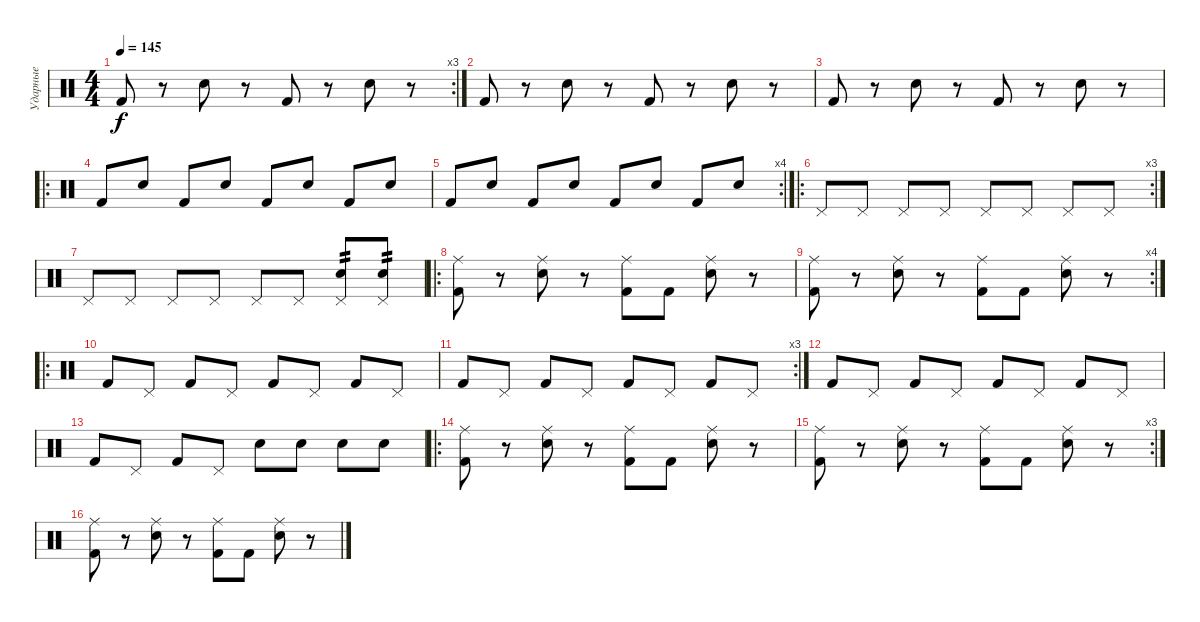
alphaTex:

\track ("Ударные" "Ударные") {instrument percussion}
\staff {score}
\articulation defaults
\rc 3
\ts (4 4)
\tempo 145
\clef neutral
\ks c "Kick (hit) 2".8{dy f}
r.8 "Electric Snare (hit)".8 r.8 "Kick (hit) 2".8 r.8 "Electric Snare (hit)".8 r.8 |
"Kick (hit) 2".8 r.8 "Electric Snare (hit)".8 r.8 "Kick (hit) 2".8 r.8 "Electric Snare (hit)".8 r.8 |
"Kick (hit) 2".8 r.8 "Electric Snare (hit)".8 r.8 "Kick (hit) 2".8 r.8 "Electric Snare (hit)".8 r.8 |
\ro "Kick (hit) 2".8 "Electric Snare (hit)".8 "Kick (hit) 2".8 "Electric Snare (hit)".8 "Kick (hit) 2".8 "Electric Snare (hit)".8 "Kick (hit) 2".8 "Electric Snare (hit)".8
|
\rc 4 "Kick (hit) 2".8 "Electric Snare (hit)".8 "Kick (hit) 2".8 "Electric Snare (hit)".8 "Kick (hit) 2".8 "Electric Snare (hit)".8 "Kick (hit) 2".8 "Electric Snare (hit)".8
|
\ro
\rc 3 "Pedal Hi-Hat (hit)".8 "Pedal Hi-Hat (hit)".8 "Pedal Hi-Hat (hit)".8 "Pedal Hi-Hat (hit)".8 "Pedal Hi-Hat (hit)".8 "Pedal Hi-Hat (hit)".8 "Pedal Hi-Hat (hit)".8 "Pedal Hi-Hat (hit)".8
|
"Pedal Hi-Hat (hit)".8 "Pedal Hi-Hat (hit)".8 "Pedal Hi-Hat (hit)".8 "Pedal Hi-Hat (hit)".8 "Pedal Hi-Hat (hit)".8 "Pedal Hi-Hat (hit)".8 ("Pedal Hi-Hat (hit)" "Electric Snare (hit)").8{tp 2} ("Pedal Hi-Hat (hit)" "Electric Snare (hit)").8{tp 2} |
\ro
("Ride (middle)" "Kick (hit) 2").8 r.8 ("Ride (middle)" "Snare (hit) 2").8 r.8 ("Ride (middle)" "Kick (hit) 2").8 "Kick (hit) 2".8 ("Ride (middle)" "Snare (hit) 2").8 r.8 |
\rc 4
("Ride (middle)" "Kick (hit) 2").8 r.8 ("Ride (middle)" "Snare (hit) 2").8 r.8 ("Ride (middle)" "Kick (hit) 2").8 "Kick (hit) 2".8 ("Ride (middle)" "Snare (hit) 2").8 r.8 |
\ro "Kick (hit) 2".8 "Pedal Hi-Hat (hit)".8 "Kick (hit) 2".8 "Pedal Hi-Hat (hit)".8 "Kick (hit) 2".8 "Pedal Hi-Hat (hit)".8 "Kick (hit) 2".8 "Pedal Hi-Hat (hit)".8
|
\rc 3 "Kick (hit) 2".8 "Pedal Hi-Hat (hit)".8 "Kick (hit) 2".8 "Pedal Hi-Hat (hit)".8 "Kick (hit) 2".8 "Pedal Hi-Hat (hit)".8 "Kick (hit) 2".8 "Pedal Hi-Hat (hit)".8
|
"Kick (hit) 2".8 "Pedal Hi-Hat (hit)".8 "Kick (hit) 2".8 "Pedal Hi-Hat (hit)".8 "Kick (hit) 2".8 "Pedal Hi-Hat (hit)".8 "Kick (hit) 2".8 "Pedal Hi-Hat (hit)".8 |
"Kick (hit) 2".8 "Pedal Hi-Hat (hit)".8 "Kick (hit) 2".8 "Pedal Hi-Hat (hit)".8 "Electric Snare (hit)".8 "Electric Snare (hit)".8 "Electric Snare (hit)".8 "Electric Snare (hit)".8 |
\ro
("Ride (middle)" "Kick (hit) 2").8 r.8 ("Ride (middle)" "Snare (hit) 2").8 r.8 ("Ride (middle)" "Kick (hit) 2").8 "Kick (hit) 2".8 ("Ride (middle)" "Snare (hit) 2").8 r.8 |
\rc 3
("Ride (middle)" "Kick (hit) 2").8 r.8 ("Ride (middle)" "Snare (hit) 2").8 r.8 ("Ride (middle)" "Kick (hit) 2").8 "Kick (hit) 2".8 ("Ride (middle)" "Snare (hit) 2").8 r.8 |
("Ride (middle)" "Kick (hit) 2").8 r.8 ("Ride (middle)" "Snare (hit) 2").8 r.8 ("Ride (middle)" "Kick (hit) 2").8 "Kick (hit) 2".8 ("Ride (middle)" "Snare (hit) 2").8 r.8
